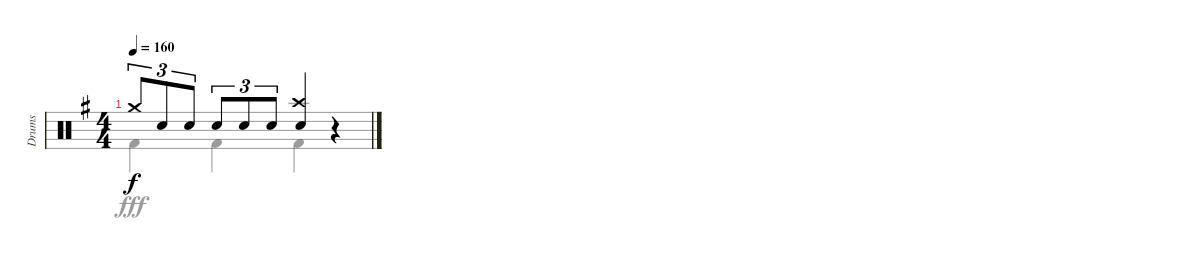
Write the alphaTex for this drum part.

\track ("Drums" "Drums") {instrument percussion}
\staff {score}
\articulation defaults
\voice
\ts (4 4)
\tempo 160
\clef neutral
\ks eminor "Crash medium (hit)".8{tu (3 2) dy f} "Snare (hit) 2".8{tu (3 2)} "Snare (hit) 2".8{tu (3 2)} "Snare (hit) 2".8{tu (3 2)} "Snare (hit) 2".8{tu (3 2)} "Snare (hit) 2".8{tu (3 2)}
("Crash high (hit)" "Snare (hit) 2").4 r.4
\voice
\clef neutral
\ottava regular
\simile none
\ks eminor "Kick (hit) 2".4{dy fff} "Kick (hit) 2".4 "Kick (hit) 2".4
r.4
